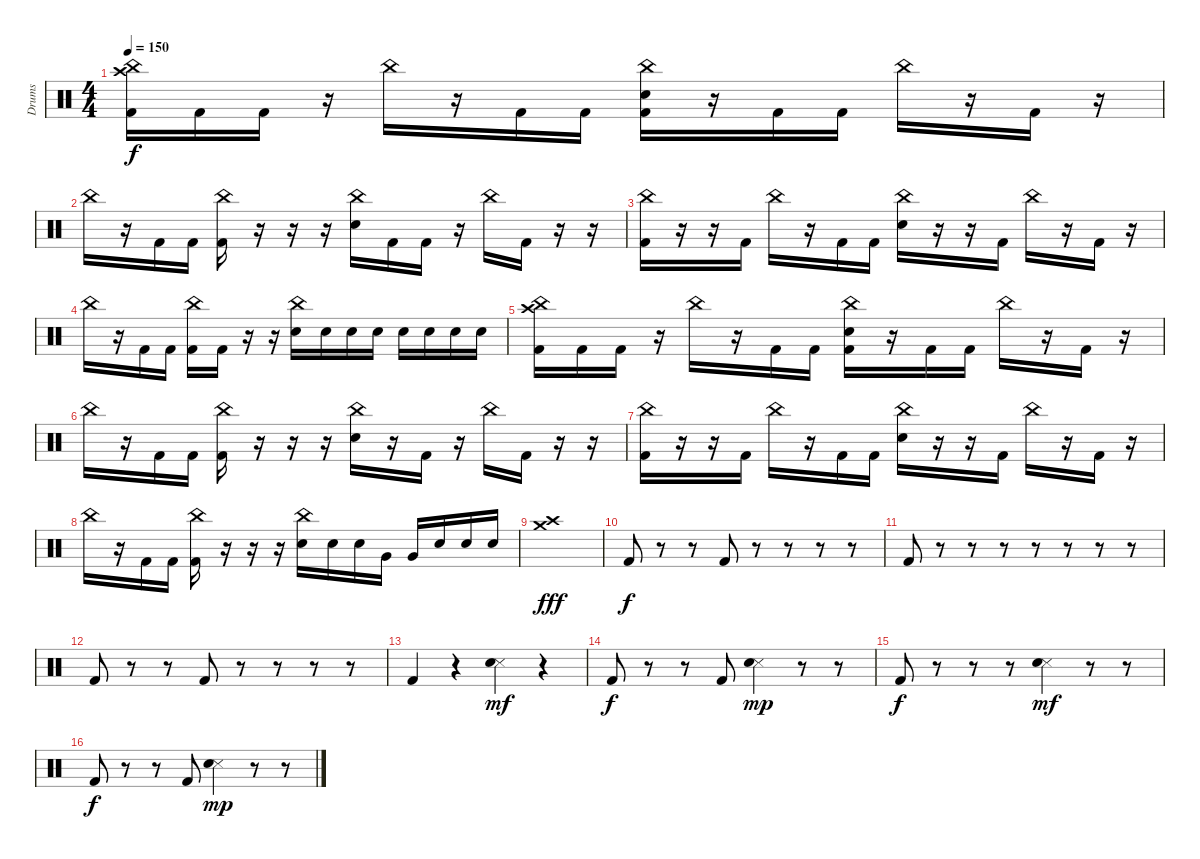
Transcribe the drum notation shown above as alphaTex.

\track ("Drums" "Drums") {instrument percussion}
\staff {score}
\articulation defaults
\ts (4 4)
\tempo 150
\clef neutral
\ks c
("Crash high (hit)" "China (hit)" "Kick (hit) 2").16{dy f} "Kick (hit) 2".16 "Kick (hit) 2".16 r.16 "China (hit)".16 r.16 "Kick (hit) 2".16 "Kick (hit) 2".16 ("China (hit)" "Electric Snare (hit)" "Kick (hit) 2").16 r.16 "Kick (hit) 2".16 "Kick (hit) 2".16 "China (hit)".16 r.16 "Kick (hit) 2".16 r.16 |
"China (hit)".16 r.16 "Kick (hit) 2".16 "Kick (hit) 2".16 ("China (hit)" "Kick (hit) 2").16 r.16 r.16 r.16 ("China (hit)" "Electric Snare (hit)").16 "Kick (hit) 2".16 "Kick (hit) 2".16 r.16 "China (hit)".16 "Kick (hit) 2".16 r.16 r.16 |
("China (hit)" "Kick (hit) 2").16 r.16 r.16 "Kick (hit) 2".16 "China (hit)".16 r.16 "Kick (hit) 2".16 "Kick (hit) 2".16 ("China (hit)" "Electric Snare (hit)").16 r.16 r.16 "Kick (hit) 2".16 "China (hit)".16 r.16 "Kick (hit) 2".16 r.16 |
"China (hit)".16 r.16 "Kick (hit) 2".16 "Kick (hit) 2".16 ("China (hit)" "Kick (hit) 2").16 "Kick (hit) 2".16 r.16 r.16 ("China (hit)" "Electric Snare (hit)").16 "Electric Snare (hit)".16 "Electric Snare (hit)".16 "Electric Snare (hit)".16 "Electric Snare (hit)".16 "Electric Snare (hit)".16 "Electric Snare (hit)".16 "Electric Snare (hit)".16 |
("Crash high (hit)" "China (hit)" "Kick (hit) 2").16 "Kick (hit) 2".16 "Kick (hit) 2".16 r.16 "China (hit)".16 r.16 "Kick (hit) 2".16 "Kick (hit) 2".16 ("China (hit)" "Electric Snare (hit)" "Kick (hit) 2").16 r.16 "Kick (hit) 2".16 "Kick (hit) 2".16 "China (hit)".16 r.16 "Kick (hit) 2".16 r.16 |
"China (hit)".16 r.16 "Kick (hit) 2".16 "Kick (hit) 2".16 ("China (hit)" "Kick (hit) 2").16 r.16 r.16 r.16 ("China (hit)" "Electric Snare (hit)").16 r.16 "Kick (hit) 2".16 r.16 "China (hit)".16 "Kick (hit) 2".16 r.16 r.16 |
("China (hit)" "Kick (hit) 2").16 r.16 r.16 "Kick (hit) 2".16 "China (hit)".16 r.16 "Kick (hit) 2".16 "Kick (hit) 2".16 ("China (hit)" "Electric Snare (hit)").16 r.16 r.16 "Kick (hit) 2".16 "China (hit)".16 r.16 "Kick (hit) 2".16 r.16 |
"China (hit)".16 r.16 "Kick (hit) 2".16 "Kick (hit) 2".16 ("China (hit)" "Kick (hit) 2").16 r.16 r.16 r.16 ("China (hit)" "Electric Snare (hit)").16 "Electric Snare (hit)".16 "Electric Snare (hit)".16 "Very Low Tom (hit)".16 "Very Low Tom (hit)".16 "Electric Snare (hit)".16 "Electric Snare (hit)".16 "Electric Snare (hit)".16{volume 0} |
("Crash medium (hit)" "Crash high (hit)").1{dy fff volume 13} |
"Kick (hit) 2".8{dy f} r.8 r.8 "Kick (hit) 2".8 r.8 r.8 r.8 r.8 |
"Kick (hit) 2".8 r.8 r.8 r.8 r.8 r.8 r.8 r.8 |
"Kick (hit) 2".8 r.8 r.8 "Kick (hit) 2".8 r.8 r.8 r.8 r.8 |
"Kick (hit) 2".4 r.4 ("Snare (side stick) 3" "Snare (hit) 2").4{dy mf} r.4 |
"Kick (hit) 2".8{dy f} r.8 r.8 "Kick (hit) 2".8 ("Snare (side stick) 3" "Snare (hit) 2").4{dy mp} r.8 r.8 |
"Kick (hit) 2".8{dy f} r.8 r.8 r.8 ("Snare (side stick) 3" "Snare (hit) 2").4{dy mf} r.8 r.8 |
"Kick (hit) 2".8{dy f} r.8 r.8 "Kick (hit) 2".8 ("Snare (side stick) 3" "Snare (hit) 2").4{dy mp} r.8 r.8
